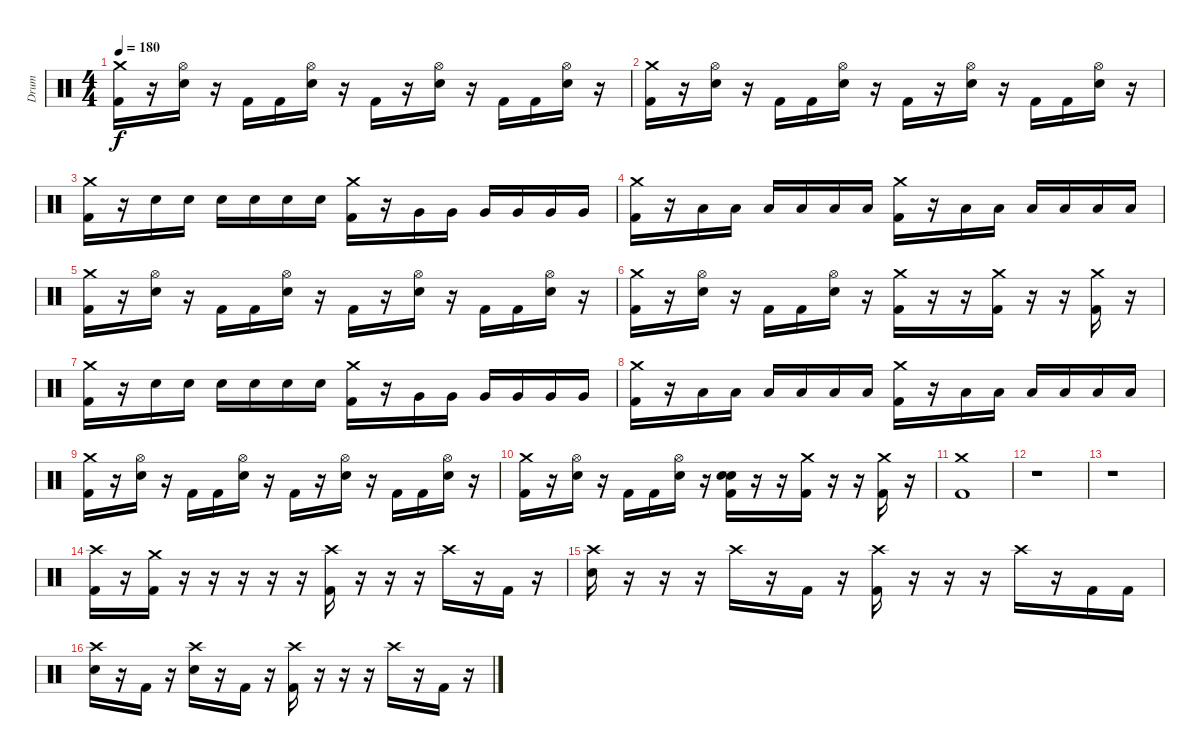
\track ("Drum" "Drum") {instrument percussion}
\staff {score}
\articulation defaults
\ts (4 4)
\tempo 180
\clef neutral
\ks c
("Crash medium (hit)" "Kick (hit) 2").16{dy f} r.16 ("Hi-Hat (open)" "Electric Snare (hit)").16 r.16 "Kick (hit) 2".16 "Kick (hit) 2".16 ("Hi-Hat (open)" "Electric Snare (hit)").16 r.16 "Kick (hit) 2".16 r.16 ("Hi-Hat (open)" "Electric Snare (hit)").16 r.16 "Kick (hit) 2".16 "Kick (hit) 2".16 ("Hi-Hat (open)" "Electric Snare (hit)").16 r.16 |
("Crash medium (hit)" "Kick (hit) 2").16 r.16 ("Hi-Hat (open)" "Electric Snare (hit)").16 r.16 "Kick (hit) 2".16 "Kick (hit) 2".16 ("Hi-Hat (open)" "Electric Snare (hit)").16 r.16 "Kick (hit) 2".16 r.16 ("Hi-Hat (open)" "Electric Snare (hit)").16 r.16 "Kick (hit) 2".16 "Kick (hit) 2".16 ("Hi-Hat (open)" "Electric Snare (hit)").16 r.16 |
("Crash medium (hit)" "Kick (hit) 2").16 r.16 "Electric Snare (hit)".16 "Electric Snare (hit)".16 "Electric Snare (hit)".16 "Electric Snare (hit)".16 "Electric Snare (hit)".16 "Electric Snare (hit)".16 ("Crash medium (hit)" "Kick (hit) 2").16 r.16 "Very Low Tom (hit)".16 "Very Low Tom (hit)".16 "Very Low Tom (hit)".16 "Very Low Tom (hit)".16 "Very Low Tom (hit)".16 "Very Low Tom (hit)".16 |
("Crash medium (hit)" "Kick (hit) 2").16 r.16 "Low Floor Tom (hit)".16 "Low Floor Tom (hit)".16 "Low Floor Tom (hit)".16 "Low Floor Tom (hit)".16 "Low Floor Tom (hit)".16 "Low Floor Tom (hit)".16 ("Crash medium (hit)" "Kick (hit) 2").16 r.16 "Low Tom (hit)".16 "Low Tom (hit)".16 "Low Tom (hit)".16 "Low Tom (hit)".16 "Low Tom (hit)".16 "Low Tom (hit)".16 |
("Crash medium (hit)" "Kick (hit) 2").16 r.16 ("Hi-Hat (open)" "Electric Snare (hit)").16 r.16 "Kick (hit) 2".16 "Kick (hit) 2".16 ("Hi-Hat (open)" "Electric Snare (hit)").16 r.16 "Kick (hit) 2".16 r.16 ("Hi-Hat (open)" "Electric Snare (hit)").16 r.16 "Kick (hit) 2".16 "Kick (hit) 2".16 ("Hi-Hat (open)" "Electric Snare (hit)").16 r.16 |
("Crash medium (hit)" "Kick (hit) 2").16 r.16 ("Hi-Hat (open)" "Electric Snare (hit)").16 r.16 "Kick (hit) 2".16 "Kick (hit) 2".16 ("Hi-Hat (open)" "Electric Snare (hit)").16 r.16 ("Crash medium (hit)" "Kick (hit) 2").16 r.16 r.16 ("Crash medium (hit)" "Kick (hit) 2").16 r.16 r.16 ("Crash medium (hit)" "Kick (hit) 2").16 r.16 |
("Crash medium (hit)" "Kick (hit) 2").16 r.16 "Electric Snare (hit)".16 "Electric Snare (hit)".16 "Electric Snare (hit)".16 "Electric Snare (hit)".16 "Electric Snare (hit)".16 "Electric Snare (hit)".16 ("Crash medium (hit)" "Kick (hit) 2").16 r.16 "Very Low Tom (hit)".16 "Very Low Tom (hit)".16 "Very Low Tom (hit)".16 "Very Low Tom (hit)".16 "Very Low Tom (hit)".16 "Very Low Tom (hit)".16 |
("Crash medium (hit)" "Kick (hit) 2").16 r.16 "Low Floor Tom (hit)".16 "Low Floor Tom (hit)".16 "Low Floor Tom (hit)".16 "Low Floor Tom (hit)".16 "Low Floor Tom (hit)".16 "Low Floor Tom (hit)".16 ("Crash medium (hit)" "Kick (hit) 2").16 r.16 "Low Tom (hit)".16 "Low Tom (hit)".16 "Low Tom (hit)".16 "Low Tom (hit)".16 "Low Tom (hit)".16 "Low Tom (hit)".16 |
("Crash medium (hit)" "Kick (hit) 2").16 r.16 ("Hi-Hat (open)" "Electric Snare (hit)").16 r.16 "Kick (hit) 2".16 "Kick (hit) 2".16 ("Hi-Hat (open)" "Electric Snare (hit)").16 r.16 "Kick (hit) 2".16 r.16 ("Hi-Hat (open)" "Electric Snare (hit)").16 r.16 "Kick (hit) 2".16 "Kick (hit) 2".16 ("Hi-Hat (open)" "Electric Snare (hit)").16 r.16 |
("Crash medium (hit)" "Kick (hit) 2").16 r.16 ("Hi-Hat (open)" "Electric Snare (hit)").16 r.16 "Kick (hit) 2".16 "Kick (hit) 2".16 ("Hi-Hat (open)" "Electric Snare (hit)").16 r.16 ("Electric Snare (hit)" "Electric Snare (hit)" "Kick (hit) 2").16 r.16 r.16 ("Crash medium (hit)" "Kick (hit) 2").16 r.16 r.16 ("Crash medium (hit)" "Kick (hit) 2").16 r.16 |
("Crash medium (hit)" "Kick (hit) 2").1 |
r.1 |
r.1 |
("Crash high (hit)" "Kick (hit) 2").16 r.16 ("Crash medium (hit)" "Kick (hit) 2").16 r.16 r.16 r.16 r.16 r.16 ("Crash high (hit)" "Kick (hit) 2").16 r.16 r.16 r.16 "Crash high (hit)".16 r.16 "Kick (hit) 2".16 r.16 |
("Crash high (hit)" "Electric Snare (hit)").16 r.16 r.16 r.16 "Crash high (hit)".16 r.16 "Kick (hit) 2".16 r.16 ("Crash high (hit)" "Kick (hit) 2").16 r.16 r.16 r.16 "Crash high (hit)".16 r.16 "Kick (hit) 2".16 "Kick (hit) 2".16 |
("Crash high (hit)" "Electric Snare (hit)").16 r.16 "Kick (hit) 2".16 r.16 ("Crash high (hit)" "Electric Snare (hit)").16 r.16 "Kick (hit) 2".16 r.16 ("Crash high (hit)" "Kick (hit) 2").16 r.16 r.16 r.16 "Crash high (hit)".16 r.16 "Kick (hit) 2".16 r.16
